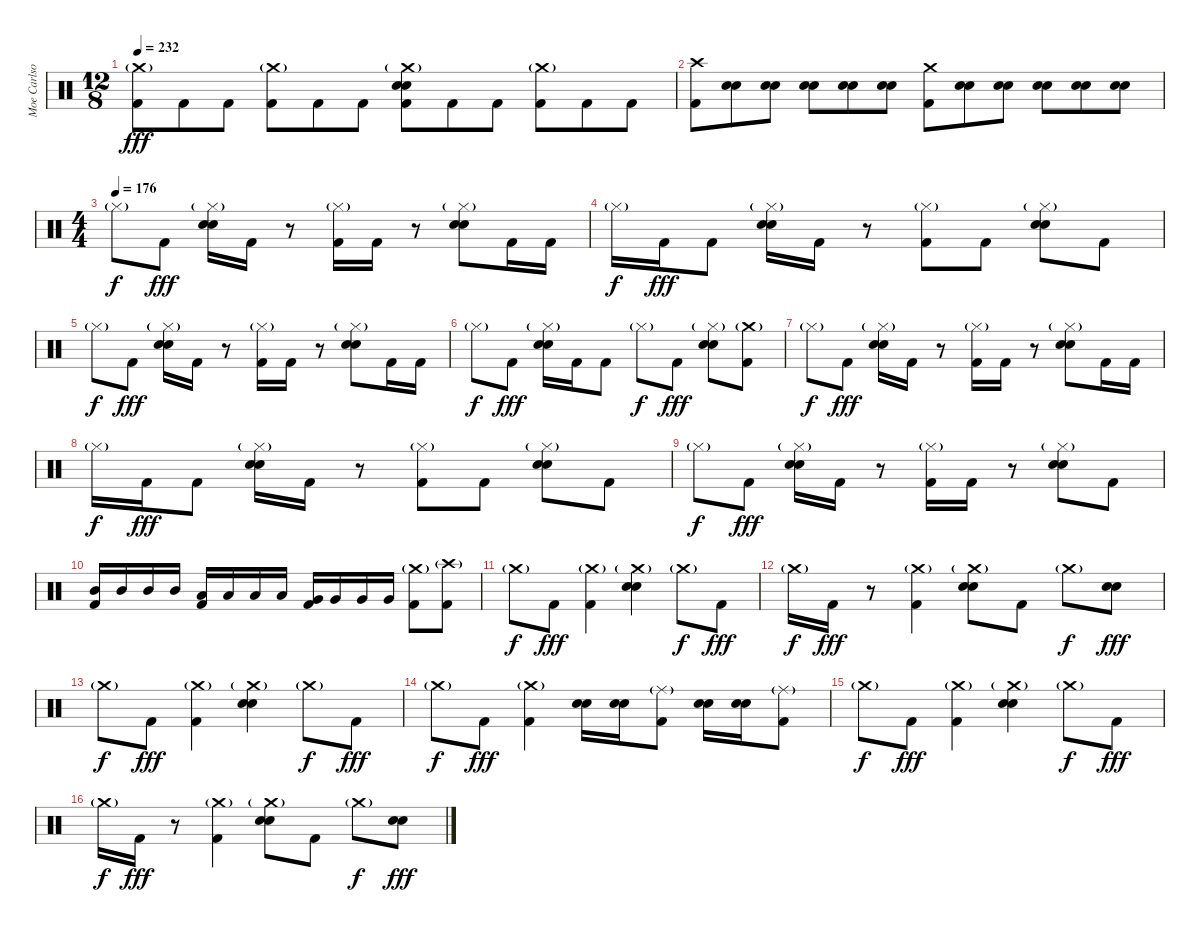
\track ("Moe Carlson" "Moe Carlso") {instrument percussion}
\staff {score}
\articulation defaults
\ts (12 8)
\tempo 232
\clef neutral
\ks c
("Crash medium (hit)"{g} "Kick (hit) 2").8{dy fff} "Kick (hit) 2".8 "Kick (hit) 2".8 ("Crash medium (hit)"{g} "Kick (hit) 2").8 "Kick (hit) 2".8 "Kick (hit) 2".8 ("Crash medium (hit)"{g} "Snare (hit) 2" "Electric Snare (hit)" "Kick (hit) 2").8 "Kick (hit) 2".8 "Kick (hit) 2".8 ("Crash medium (hit)"{g} "Kick (hit) 2").8 "Kick (hit) 2".8 "Kick (hit) 2".8 |
("Crash high (hit)" "Kick (hit) 2").8 ("Snare (hit) 2" "Electric Snare (hit)").8 ("Snare (hit) 2" "Electric Snare (hit)").8 ("Snare (hit) 2" "Electric Snare (hit)").8 ("Snare (hit) 2" "Electric Snare (hit)").8 ("Snare (hit) 2" "Electric Snare (hit)").8 ("Crash medium (hit)" "Kick (hit) 2").8 ("Snare (hit) 2" "Electric Snare (hit)").8 ("Snare (hit) 2" "Electric Snare (hit)").8 ("Snare (hit) 2" "Electric Snare (hit)").8 ("Snare (hit) 2" "Electric Snare (hit)").8 ("Snare (hit) 2" "Electric Snare (hit)").8 |
\ts (4 4)
\tempo (176)
"Hi-Hat (closed)"{g}.8{dy f} "Kick (hit) 2".8{dy fff} ("Hi-Hat (closed)"{g} "Snare (hit) 2" "Electric Snare (hit)").16 "Kick (hit) 2".16 r.8 ("Hi-Hat (closed)"{g} "Kick (hit) 2").16 "Kick (hit) 2".16 r.8 ("Hi-Hat (closed)"{g} "Snare (hit) 2" "Electric Snare (hit)").8 "Kick (hit) 2".16 "Kick (hit) 2".16 |
"Hi-Hat (closed)"{g}.16{dy f} "Kick (hit) 2".16{dy fff} "Kick (hit) 2".8 ("Hi-Hat (closed)"{g} "Snare (hit) 2" "Electric Snare (hit)").16 "Kick (hit) 2".16 r.8 ("Hi-Hat (closed)"{g} "Kick (hit) 2").8 "Kick (hit) 2".8 ("Hi-Hat (closed)"{g} "Snare (hit) 2" "Electric Snare (hit)").8 "Kick (hit) 2".8 |
"Hi-Hat (closed)"{g}.8{dy f} "Kick (hit) 2".8{dy fff} ("Hi-Hat (closed)"{g} "Snare (hit) 2" "Electric Snare (hit)").16 "Kick (hit) 2".16 r.8 ("Hi-Hat (closed)"{g} "Kick (hit) 2").16 "Kick (hit) 2".16 r.8 ("Hi-Hat (closed)"{g} "Snare (hit) 2" "Electric Snare (hit)").8 "Kick (hit) 2".16 "Kick (hit) 2".16 |
"Hi-Hat (closed)"{g}.8{dy f} "Kick (hit) 2".8{dy fff} ("Hi-Hat (closed)"{g} "Snare (hit) 2" "Electric Snare (hit)").16 "Kick (hit) 2".16 "Kick (hit) 2".8 "Hi-Hat (closed)"{g}.8{dy f} "Kick (hit) 2".8{dy fff} ("Hi-Hat (closed)"{g} "Snare (hit) 2" "Electric Snare (hit)").8 ("Crash medium (hit)"{g} "Kick (hit) 2").8 |
"Hi-Hat (closed)"{g}.8{dy f} "Kick (hit) 2".8{dy fff} ("Hi-Hat (closed)"{g} "Snare (hit) 2" "Electric Snare (hit)").16 "Kick (hit) 2".16 r.8 ("Hi-Hat (closed)"{g} "Kick (hit) 2").16 "Kick (hit) 2".16 r.8 ("Hi-Hat (closed)"{g} "Snare (hit) 2" "Electric Snare (hit)").8 "Kick (hit) 2".16 "Kick (hit) 2".16 |
"Hi-Hat (closed)"{g}.16{dy f} "Kick (hit) 2".16{dy fff} "Kick (hit) 2".8 ("Hi-Hat (closed)"{g} "Snare (hit) 2" "Electric Snare (hit)").16 "Kick (hit) 2".16 r.8 ("Hi-Hat (closed)"{g} "Kick (hit) 2").8 "Kick (hit) 2".8 ("Hi-Hat (closed)"{g} "Snare (hit) 2" "Electric Snare (hit)").8 "Kick (hit) 2".8 |
"Hi-Hat (closed)"{g}.8{dy f} "Kick (hit) 2".8{dy fff} ("Hi-Hat (closed)"{g} "Snare (hit) 2" "Electric Snare (hit)").16 "Kick (hit) 2".16 r.8 ("Hi-Hat (closed)"{g} "Kick (hit) 2").16 "Kick (hit) 2".16 r.8 ("Hi-Hat (closed)"{g} "Snare (hit) 2" "Electric Snare (hit)").8 "Kick (hit) 2".8 |
("Mid Tom (hit)" "Kick (hit) 2").16 "Mid Tom (hit)".16 "Mid Tom (hit)".16 "Mid Tom (hit)".16 ("Low Tom (hit)" "Kick (hit) 2").16 "Low Tom (hit)".16 "Low Tom (hit)".16 "Low Tom (hit)".16 ("Very Low Tom (hit)" "Kick (hit) 2").16 "Very Low Tom (hit)".16 "Very Low Tom (hit)".16 "Very Low Tom (hit)".16 ("Crash medium (hit)"{g} "Kick (hit) 2").8 ("Crash high (hit)"{g} "Kick (hit) 2").8 |
"Crash medium (hit)"{g}.8{dy f} "Kick (hit) 2".8{dy fff} ("Crash medium (hit)"{g} "Kick (hit) 2").4 ("Crash medium (hit)"{g} "Snare (hit) 2" "Electric Snare (hit)").4 "Crash medium (hit)"{g}.8{dy f} "Kick (hit) 2".8{dy fff} |
"Crash medium (hit)"{g}.16{dy f} "Kick (hit) 2".16{dy fff} r.8 ("Crash medium (hit)"{g} "Kick (hit) 2").4 ("Crash medium (hit)"{g} "Snare (hit) 2" "Electric Snare (hit)").8 "Kick (hit) 2".8 "Crash medium (hit)"{g}.8{dy f} ("Snare (hit) 2" "Electric Snare (hit)").8{dy fff} |
"Crash medium (hit)"{g}.8{dy f} "Kick (hit) 2".8{dy fff} ("Crash medium (hit)"{g} "Kick (hit) 2").4 ("Crash medium (hit)"{g} "Snare (hit) 2" "Electric Snare (hit)").4 "Crash medium (hit)"{g}.8{dy f} "Kick (hit) 2".8{dy fff} |
"Crash medium (hit)"{g}.8{dy f} "Kick (hit) 2".8{dy fff} ("Crash medium (hit)"{g} "Kick (hit) 2").4 ("Snare (hit) 2" "Electric Snare (hit)").16 ("Snare (hit) 2" "Electric Snare (hit)").16 ("Ride (middle)"{g} "Kick (hit) 2").8 ("Snare (hit) 2" "Electric Snare (hit)").16 ("Snare (hit) 2" "Electric Snare (hit)").16 ("Ride (middle)"{g} "Kick (hit) 2").8 |
"Crash medium (hit)"{g}.8{dy f} "Kick (hit) 2".8{dy fff} ("Crash medium (hit)"{g} "Kick (hit) 2").4 ("Crash medium (hit)"{g} "Snare (hit) 2" "Electric Snare (hit)").4 "Crash medium (hit)"{g}.8{dy f} "Kick (hit) 2".8{dy fff} |
"Crash medium (hit)"{g}.16{dy f} "Kick (hit) 2".16{dy fff} r.8 ("Crash medium (hit)"{g} "Kick (hit) 2").4 ("Crash medium (hit)"{g} "Snare (hit) 2" "Electric Snare (hit)").8 "Kick (hit) 2".8 "Crash medium (hit)"{g}.8{dy f} ("Snare (hit) 2" "Electric Snare (hit)").8{dy fff}
